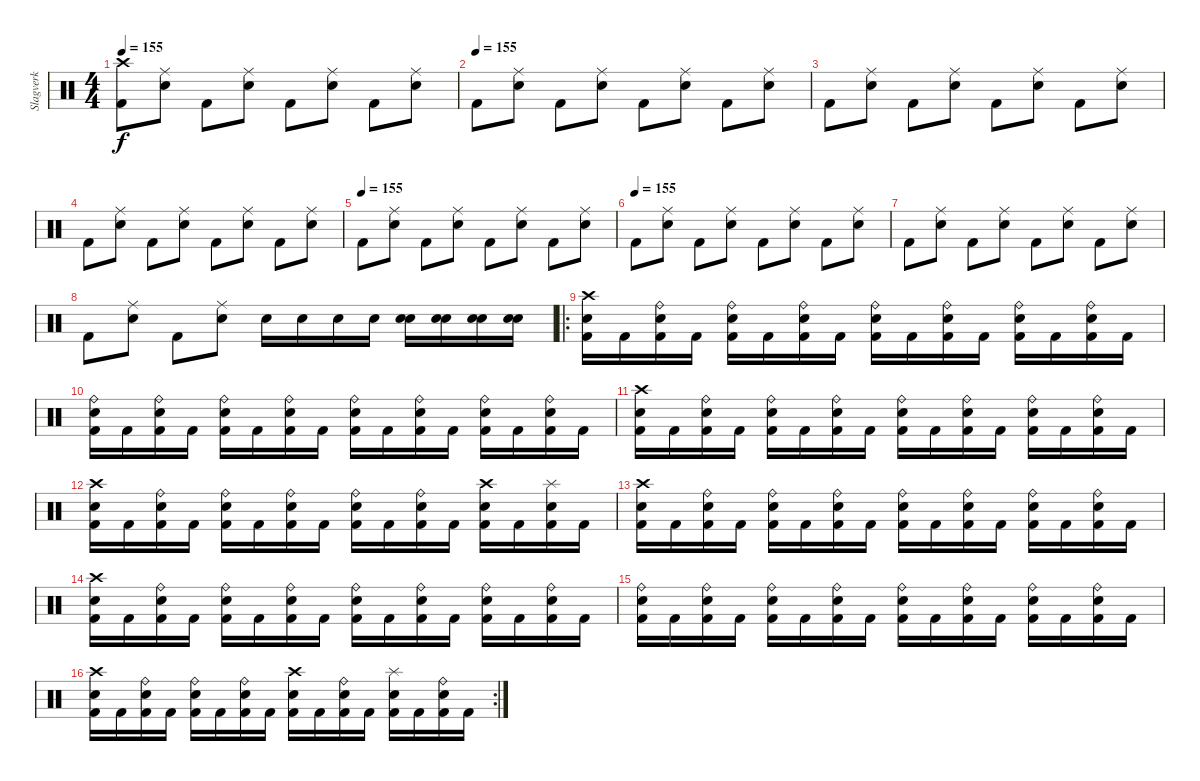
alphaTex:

\track ("Slagverk" "Slagverk") {instrument percussion}
\staff {score}
\articulation defaults
\ts (4 4)
\tempo 155
\clef neutral
\ks c
("Crash high (hit)" "Kick (hit) 2").8{dy f} ("Ride (middle)" "Snare (hit) 2").8 "Kick (hit) 2".8 ("Ride (middle)" "Snare (hit) 2").8 "Kick (hit) 2".8 ("Ride (middle)" "Snare (hit) 2").8 "Kick (hit) 2".8 ("Ride (middle)" "Snare (hit) 2").8 |
\tempo (155)
"Kick (hit) 2".8 ("Ride (middle)" "Snare (hit) 2").8 "Kick (hit) 2".8 ("Ride (middle)" "Snare (hit) 2").8 "Kick (hit) 2".8 ("Ride (middle)" "Snare (hit) 2").8 "Kick (hit) 2".8 ("Ride (middle)" "Snare (hit) 2").8 |
"Kick (hit) 2".8 ("Ride (middle)" "Snare (hit) 2").8 "Kick (hit) 2".8 ("Ride (middle)" "Snare (hit) 2").8 "Kick (hit) 2".8 ("Ride (middle)" "Snare (hit) 2").8 "Kick (hit) 2".8 ("Ride (middle)" "Snare (hit) 2").8 |
"Kick (hit) 2".8 ("Ride (middle)" "Snare (hit) 2").8 "Kick (hit) 2".8 ("Ride (middle)" "Snare (hit) 2").8 "Kick (hit) 2".8 ("Ride (middle)" "Snare (hit) 2").8 "Kick (hit) 2".8 ("Ride (middle)" "Snare (hit) 2").8 |
\tempo (155)
"Kick (hit) 2".8 ("Ride (middle)" "Snare (hit) 2").8 "Kick (hit) 2".8 ("Ride (middle)" "Snare (hit) 2").8 "Kick (hit) 2".8 ("Ride (middle)" "Snare (hit) 2").8 "Kick (hit) 2".8 ("Ride (middle)" "Snare (hit) 2").8 |
\tempo (155)
"Kick (hit) 2".8 ("Ride (middle)" "Snare (hit) 2").8 "Kick (hit) 2".8 ("Ride (middle)" "Snare (hit) 2").8 "Kick (hit) 2".8 ("Ride (middle)" "Snare (hit) 2").8 "Kick (hit) 2".8 ("Ride (middle)" "Snare (hit) 2").8 |
"Kick (hit) 2".8 ("Ride (middle)" "Snare (hit) 2").8 "Kick (hit) 2".8 ("Ride (middle)" "Snare (hit) 2").8 "Kick (hit) 2".8 ("Ride (middle)" "Snare (hit) 2").8 "Kick (hit) 2".8 ("Ride (middle)" "Snare (hit) 2").8 |
"Kick (hit) 2".8 ("Ride (middle)" "Snare (hit) 2").8 "Kick (hit) 2".8 ("Ride (middle)" "Snare (hit) 2").8 "Snare (hit) 2".16 "Snare (hit) 2".16 "Snare (hit) 2".16 "Snare (hit) 2".16 ("Electric Snare (hit)" "Snare (hit) 2").16 ("Electric Snare (hit)" "Snare (hit) 2").16 ("Electric Snare (hit)" "Snare (hit) 2").16 ("Electric Snare (hit)" "Snare (hit) 2").16 |
\ro
("Crash high (hit)" "Snare (hit) 2" "Kick (hit) 2").16 "Kick (hit) 2".16 ("Ride (bell)" "Snare (hit) 2" "Kick (hit) 2").16 "Kick (hit) 2".16 ("Ride (bell)" "Snare (hit) 2" "Kick (hit) 2").16 "Kick (hit) 2".16 ("Ride (bell)" "Snare (hit) 2" "Kick (hit) 2").16 "Kick (hit) 2".16 ("Ride (bell)" "Snare (hit) 2" "Kick (hit) 2").16 "Kick (hit) 2".16 ("Ride (bell)" "Snare (hit) 2" "Kick (hit) 2").16 "Kick (hit) 2".16 ("Ride (bell)" "Snare (hit) 2" "Kick (hit) 2").16 "Kick (hit) 2".16 ("Ride (bell)" "Snare (hit) 2" "Kick (hit) 2").16 "Kick (hit) 2".16 |
("Ride (bell)" "Snare (hit) 2" "Kick (hit) 2").16 "Kick (hit) 2".16 ("Ride (bell)" "Snare (hit) 2" "Kick (hit) 2").16 "Kick (hit) 2".16 ("Ride (bell)" "Snare (hit) 2" "Kick (hit) 2").16 "Kick (hit) 2".16 ("Ride (bell)" "Snare (hit) 2" "Kick (hit) 2").16 "Kick (hit) 2".16 ("Ride (bell)" "Snare (hit) 2" "Kick (hit) 2").16 "Kick (hit) 2".16 ("Ride (bell)" "Snare (hit) 2" "Kick (hit) 2").16 "Kick (hit) 2".16 ("Ride (bell)" "Snare (hit) 2" "Kick (hit) 2").16 "Kick (hit) 2".16 ("Ride (bell)" "Snare (hit) 2" "Kick (hit) 2").16 "Kick (hit) 2".16 |
("Crash high (hit)" "Snare (hit) 2" "Kick (hit) 2").16 "Kick (hit) 2".16 ("Ride (bell)" "Snare (hit) 2" "Kick (hit) 2").16 "Kick (hit) 2".16 ("Ride (bell)" "Snare (hit) 2" "Kick (hit) 2").16 "Kick (hit) 2".16 ("Ride (bell)" "Snare (hit) 2" "Kick (hit) 2").16 "Kick (hit) 2".16 ("Ride (bell)" "Snare (hit) 2" "Kick (hit) 2").16 "Kick (hit) 2".16 ("Ride (bell)" "Snare (hit) 2" "Kick (hit) 2").16 "Kick (hit) 2".16 ("Ride (bell)" "Snare (hit) 2" "Kick (hit) 2").16 "Kick (hit) 2".16 ("Ride (bell)" "Snare (hit) 2" "Kick (hit) 2").16 "Kick (hit) 2".16 |
("Crash high (hit)" "Snare (hit) 2" "Kick (hit) 2").16 "Kick (hit) 2".16 ("Ride (bell)" "Snare (hit) 2" "Kick (hit) 2").16 "Kick (hit) 2".16 ("Ride (bell)" "Snare (hit) 2" "Kick (hit) 2").16 "Kick (hit) 2".16 ("Ride (bell)" "Snare (hit) 2" "Kick (hit) 2").16 "Kick (hit) 2".16 ("Ride (bell)" "Snare (hit) 2" "Kick (hit) 2").16 "Kick (hit) 2".16 ("Ride (bell)" "Snare (hit) 2" "Kick (hit) 2").16 "Kick (hit) 2".16 ("Crash high (hit)" "Snare (hit) 2" "Kick (hit) 2").16 "Kick (hit) 2".16 ("Splash (hit)" "Snare (hit) 2" "Kick (hit) 2").16 "Kick (hit) 2".16 |
("Crash high (hit)" "Snare (hit) 2" "Kick (hit) 2").16 "Kick (hit) 2".16 ("Ride (bell)" "Snare (hit) 2" "Kick (hit) 2").16 "Kick (hit) 2".16 ("Ride (bell)" "Snare (hit) 2" "Kick (hit) 2").16 "Kick (hit) 2".16 ("Ride (bell)" "Snare (hit) 2" "Kick (hit) 2").16 "Kick (hit) 2".16 ("Ride (bell)" "Snare (hit) 2" "Kick (hit) 2").16 "Kick (hit) 2".16 ("Ride (bell)" "Snare (hit) 2" "Kick (hit) 2").16 "Kick (hit) 2".16 ("Ride (bell)" "Snare (hit) 2" "Kick (hit) 2").16 "Kick (hit) 2".16 ("Ride (bell)" "Snare (hit) 2" "Kick (hit) 2").16 "Kick (hit) 2".16 |
("Crash high (hit)" "Snare (hit) 2" "Kick (hit) 2").16 "Kick (hit) 2".16 ("Ride (bell)" "Snare (hit) 2" "Kick (hit) 2").16 "Kick (hit) 2".16 ("Ride (bell)" "Snare (hit) 2" "Kick (hit) 2").16 "Kick (hit) 2".16 ("Ride (bell)" "Snare (hit) 2" "Kick (hit) 2").16 "Kick (hit) 2".16 ("Ride (bell)" "Snare (hit) 2" "Kick (hit) 2").16 "Kick (hit) 2".16 ("Ride (bell)" "Snare (hit) 2" "Kick (hit) 2").16 "Kick (hit) 2".16 ("Ride (bell)" "Snare (hit) 2" "Kick (hit) 2").16 "Kick (hit) 2".16 ("Ride (bell)" "Snare (hit) 2" "Kick (hit) 2").16 "Kick (hit) 2".16 |
("Ride (bell)" "Snare (hit) 2" "Kick (hit) 2").16 "Kick (hit) 2".16 ("Ride (bell)" "Snare (hit) 2" "Kick (hit) 2").16 "Kick (hit) 2".16 ("Ride (bell)" "Snare (hit) 2" "Kick (hit) 2").16 "Kick (hit) 2".16 ("Ride (bell)" "Snare (hit) 2" "Kick (hit) 2").16 "Kick (hit) 2".16 ("Ride (bell)" "Snare (hit) 2" "Kick (hit) 2").16 "Kick (hit) 2".16 ("Ride (bell)" "Snare (hit) 2" "Kick (hit) 2").16 "Kick (hit) 2".16 ("Ride (bell)" "Snare (hit) 2" "Kick (hit) 2").16 "Kick (hit) 2".16 ("Ride (bell)" "Snare (hit) 2" "Kick (hit) 2").16 "Kick (hit) 2".16 |
\rc 2
("Crash high (hit)" "Snare (hit) 2" "Kick (hit) 2").16 "Kick (hit) 2".16 ("Ride (bell)" "Snare (hit) 2" "Kick (hit) 2").16 "Kick (hit) 2".16 ("Ride (bell)" "Snare (hit) 2" "Kick (hit) 2").16 "Kick (hit) 2".16 ("Ride (bell)" "Snare (hit) 2" "Kick (hit) 2").16 "Kick (hit) 2".16 ("Crash high (hit)" "Snare (hit) 2" "Kick (hit) 2").16 "Kick (hit) 2".16 ("Ride (bell)" "Snare (hit) 2" "Kick (hit) 2").16 "Kick (hit) 2".16 ("Splash (hit)" "Snare (hit) 2" "Kick (hit) 2").16 "Kick (hit) 2".16 ("Ride (bell)" "Snare (hit) 2" "Kick (hit) 2").16 "Kick (hit) 2".16
